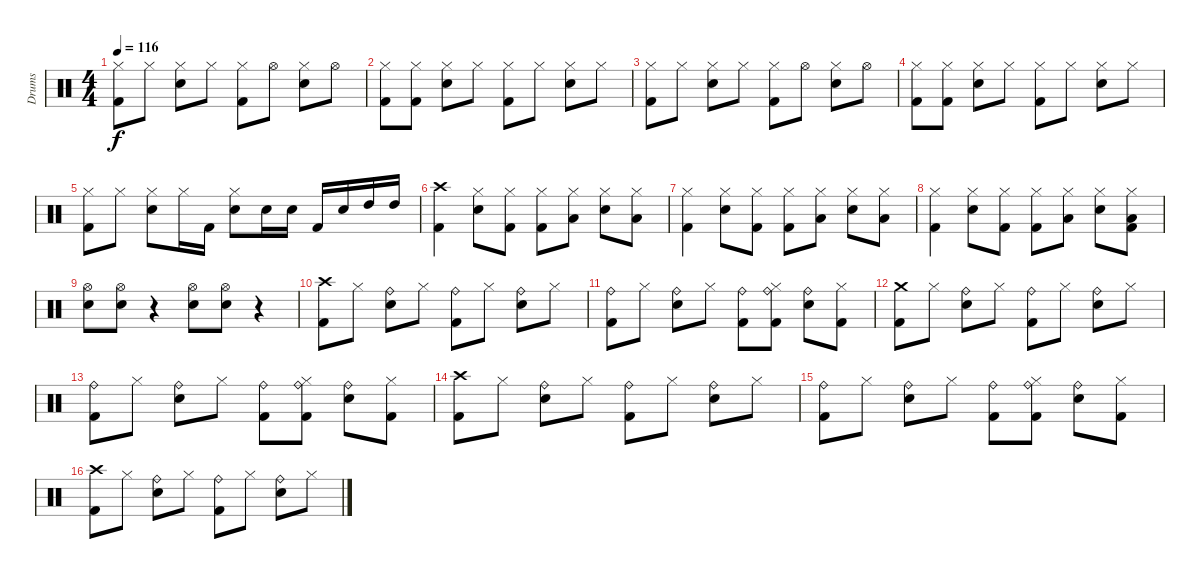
\track ("Drums" "Drums") {instrument percussion}
\staff {score}
\articulation defaults
\ts (4 4)
\tempo 116
\clef neutral
\ks c
("Kick (hit) 2" "Hi-Hat (closed)").8{dy f} "Hi-Hat (closed)".8 ("Snare (hit) 2" "Hi-Hat (closed)").8 "Hi-Hat (closed)".8 ("Kick (hit) 2" "Hi-Hat (closed)").8 "Hi-Hat (open)".8 ("Snare (hit) 2" "Hi-Hat (closed)").8 "Hi-Hat (open)".8 |
("Kick (hit) 2" "Hi-Hat (closed)").8 ("Kick (hit) 2" "Hi-Hat (closed)").8 ("Snare (hit) 2" "Hi-Hat (closed)").8 "Hi-Hat (closed)".8 ("Kick (hit) 2" "Hi-Hat (closed)").8 "Hi-Hat (closed)".8 ("Snare (hit) 2" "Hi-Hat (closed)").8 "Hi-Hat (closed)".8 |
("Kick (hit) 2" "Hi-Hat (closed)").8 "Hi-Hat (closed)".8 ("Snare (hit) 2" "Hi-Hat (closed)").8 "Hi-Hat (closed)".8 ("Kick (hit) 2" "Hi-Hat (closed)").8 "Hi-Hat (open)".8 ("Snare (hit) 2" "Hi-Hat (closed)").8 "Hi-Hat (open)".8 |
("Kick (hit) 2" "Hi-Hat (closed)").8 ("Kick (hit) 2" "Hi-Hat (closed)").8 ("Snare (hit) 2" "Hi-Hat (closed)").8 "Hi-Hat (closed)".8 ("Kick (hit) 2" "Hi-Hat (closed)").8 "Hi-Hat (closed)".8 ("Snare (hit) 2" "Hi-Hat (closed)").8 "Hi-Hat (closed)".8 |
("Kick (hit) 2" "Hi-Hat (closed)").8 "Hi-Hat (closed)".8 ("Snare (hit) 2" "Hi-Hat (closed)").8 "Hi-Hat (closed)".16 "Kick (hit) 2".16 ("Snare (hit) 2" "Hi-Hat (closed)").8 "Snare (hit) 2".16 "Snare (hit) 2".16 "Kick (hit) 2".16 "Snare (hit) 2".16 "High Tom (hit)".16 "High Tom (hit)".16 |
("Kick (hit) 2" "Crash high (hit)").4 ("Snare (hit) 2" "Hi-Hat (closed)").8 ("Kick (hit) 2" "Hi-Hat (closed)").8 ("Kick (hit) 2" "Hi-Hat (closed)").8 ("Hi-Hat (closed)" "Low Tom (hit)").8 ("Snare (hit) 2" "Hi-Hat (closed)").8 ("Hi-Hat (closed)" "Low Tom (hit)").8 |
("Kick (hit) 2" "Hi-Hat (closed)").4 ("Snare (hit) 2" "Hi-Hat (closed)").8 ("Kick (hit) 2" "Hi-Hat (closed)").8 ("Kick (hit) 2" "Hi-Hat (closed)").8 ("Hi-Hat (closed)" "Low Tom (hit)").8 ("Snare (hit) 2" "Hi-Hat (closed)").8 ("Hi-Hat (closed)" "Low Tom (hit)").8 |
("Kick (hit) 2" "Hi-Hat (closed)").4 ("Snare (hit) 2" "Hi-Hat (closed)").8 ("Kick (hit) 2" "Hi-Hat (closed)").8 ("Kick (hit) 2" "Hi-Hat (closed)").8 ("Hi-Hat (closed)" "Low Tom (hit)").8 ("Snare (hit) 2" "Hi-Hat (closed)").8 ("Kick (hit) 2" "Hi-Hat (closed)" "Low Tom (hit)").8 |
("Snare (hit) 2" "Hi-Hat (open)").8 ("Snare (hit) 2" "Hi-Hat (open)").8 r.4 ("Snare (hit) 2" "Hi-Hat (open)").8 ("Snare (hit) 2" "Hi-Hat (open)").8 r.4 |
("Kick (hit) 2" "Crash high (hit)").8 "Hi-Hat (closed)".8 ("Snare (hit) 2" "Ride (bell)").8 "Hi-Hat (closed)".8 ("Kick (hit) 2" "Ride (bell)").8 "Hi-Hat (closed)".8 ("Snare (hit) 2" "Ride (bell)").8 "Hi-Hat (closed)".8 |
("Kick (hit) 2" "Ride (bell)").8 "Hi-Hat (closed)".8 ("Snare (hit) 2" "Ride (bell)").8 "Hi-Hat (closed)".8 ("Kick (hit) 2" "Ride (bell)").8 ("Kick (hit) 2" "Hi-Hat (closed)" "Ride (bell)").8 ("Snare (hit) 2" "Ride (bell)").8 ("Kick (hit) 2" "Hi-Hat (closed)").8 |
("Kick (hit) 2" "Crash medium (hit)").8 "Hi-Hat (closed)".8 ("Snare (hit) 2" "Ride (bell)").8 "Hi-Hat (closed)".8 ("Kick (hit) 2" "Ride (bell)").8 "Hi-Hat (closed)".8 ("Snare (hit) 2" "Ride (bell)").8 "Hi-Hat (closed)".8 |
("Kick (hit) 2" "Ride (bell)").8 "Hi-Hat (closed)".8 ("Snare (hit) 2" "Ride (bell)").8 "Hi-Hat (closed)".8 ("Kick (hit) 2" "Ride (bell)").8 ("Kick (hit) 2" "Hi-Hat (closed)" "Ride (bell)").8 ("Snare (hit) 2" "Ride (bell)").8 ("Kick (hit) 2" "Hi-Hat (closed)").8 |
("Kick (hit) 2" "Crash high (hit)").8 "Hi-Hat (closed)".8 ("Snare (hit) 2" "Ride (bell)").8 "Hi-Hat (closed)".8 ("Kick (hit) 2" "Ride (bell)").8 "Hi-Hat (closed)".8 ("Snare (hit) 2" "Ride (bell)").8 "Hi-Hat (closed)".8 |
("Kick (hit) 2" "Ride (bell)").8 "Hi-Hat (closed)".8 ("Snare (hit) 2" "Ride (bell)").8 "Hi-Hat (closed)".8 ("Kick (hit) 2" "Ride (bell)").8 ("Kick (hit) 2" "Hi-Hat (closed)" "Ride (bell)").8 ("Snare (hit) 2" "Ride (bell)").8 ("Kick (hit) 2" "Hi-Hat (closed)").8 |
("Kick (hit) 2" "Crash high (hit)").8 "Hi-Hat (closed)".8 ("Snare (hit) 2" "Ride (bell)").8 "Hi-Hat (closed)".8 ("Kick (hit) 2" "Ride (bell)").8 "Hi-Hat (closed)".8 ("Snare (hit) 2" "Ride (bell)").8 "Hi-Hat (closed)".8
